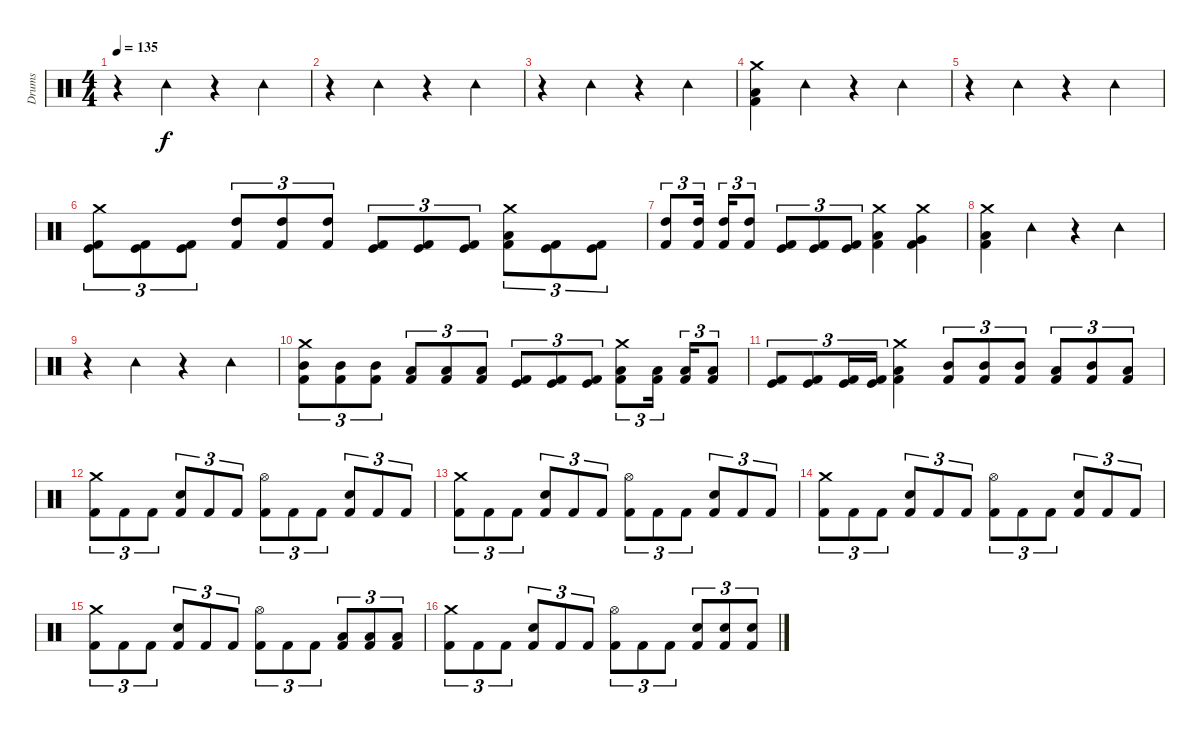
\track ("Drums" "Drums") {instrument percussion}
\staff {score}
\articulation defaults
\ts (4 4)
\tempo 135
\clef neutral
\ks c
r.4{dy f} "Tambourine (hit)".4 r.4 "Tambourine (hit)".4 |
r.4 "Tambourine (hit)".4 r.4 "Tambourine (hit)".4 |
r.4 "Tambourine (hit)".4 r.4 "Tambourine (hit)".4 |
("Crash medium (hit)" "Low Floor Tom (hit)" "Kick (hit) 2").4 "Tambourine (hit)".4 r.4 "Tambourine (hit)".4 |
r.4 "Tambourine (hit)".4 r.4 "Tambourine (hit)".4 |
("Crash medium (hit)" "Kick (hit)" "Kick (hit) 2").8{tu (3 2)} ("Kick (hit)" "Kick (hit) 2").8{tu (3 2)} ("Kick (hit)" "Kick (hit) 2").8{tu (3 2)} ("High Tom (hit)" "Kick (hit) 2").8{tu (3 2)} ("High Tom (hit)" "Kick (hit) 2").8{tu (3 2)} ("High Tom (hit)" "Kick (hit) 2").8{tu (3 2)} ("Kick (hit)" "Kick (hit) 2").8{tu (3 2)} ("Kick (hit)" "Kick (hit) 2").8{tu (3 2)} ("Kick (hit)" "Kick (hit) 2").8{tu (3 2)} ("Crash medium (hit)" "Low Floor Tom (hit)" "Kick (hit) 2").8{tu (3 2)} ("Kick (hit)" "Kick (hit) 2").8{tu (3 2)} ("Kick (hit)" "Kick (hit) 2").8{tu (3 2)} |
("High Tom (hit)" "Kick (hit) 2").8{tu (3 2)} ("High Tom (hit)" "Kick (hit) 2").16{tu (3 2)} ("High Tom (hit)" "Kick (hit) 2").16{tu (3 2)} ("High Tom (hit)" "Kick (hit) 2").8{tu (3 2)} ("Kick (hit)" "Kick (hit) 2").8{tu (3 2)} ("Kick (hit)" "Kick (hit) 2").8{tu (3 2)} ("Kick (hit)" "Kick (hit) 2").8{tu (3 2)} ("Crash medium (hit)" "Low Floor Tom (hit)" "Kick (hit) 2").4 ("Crash medium (hit)" "Very Low Tom (hit)" "Kick (hit) 2").4 |
("Crash medium (hit)" "Low Floor Tom (hit)" "Kick (hit) 2").4 "Tambourine (hit)".4 r.4 "Tambourine (hit)".4 |
r.4 "Tambourine (hit)".4 r.4 "Tambourine (hit)".4 |
("Crash medium (hit)" "Mid Tom (hit)" "Kick (hit) 2").8{tu (3 2)} ("Mid Tom (hit)" "Kick (hit) 2").8{tu (3 2)} ("Mid Tom (hit)" "Kick (hit) 2").8{tu (3 2)} ("Low Tom (hit)" "Kick (hit) 2").8{tu (3 2)} ("Low Tom (hit)" "Kick (hit) 2").8{tu (3 2)} ("Low Tom (hit)" "Kick (hit) 2").8{tu (3 2)} ("Kick (hit)" "Kick (hit) 2").8{tu (3 2)} ("Kick (hit)" "Kick (hit) 2").8{tu (3 2)} ("Kick (hit)" "Kick (hit) 2").8{tu (3 2)} ("Crash medium (hit)" "Low Floor Tom (hit)" "Kick (hit) 2").8{tu (3 2)} ("Low Floor Tom (hit)" "Kick (hit) 2").16{tu (3 2)} ("Low Floor Tom (hit)" "Kick (hit) 2").16{tu (3 2)} ("Low Floor Tom (hit)" "Kick (hit) 2").8{tu (3 2)} |
("Kick (hit)" "Kick (hit) 2").8{tu (3 2)} ("Kick (hit)" "Kick (hit) 2").8{tu (3 2)} ("Kick (hit)" "Kick (hit) 2").16{tu (3 2)} ("Kick (hit)" "Kick (hit) 2").16{tu (3 2)} ("Crash medium (hit)" "Low Floor Tom (hit)" "Kick (hit) 2").4 ("Mid Tom (hit)" "Kick (hit) 2").8{tu (3 2)} ("Mid Tom (hit)" "Kick (hit) 2").8{tu (3 2)} ("Mid Tom (hit)" "Kick (hit) 2").8{tu (3 2)} ("Low Tom (hit)" "Kick (hit) 2").8{tu (3 2)} ("Mid Tom (hit)" "Kick (hit) 2").8{tu (3 2)} ("Low Tom (hit)" "Kick (hit) 2").8{tu (3 2)} |
("Crash medium (hit)" "Kick (hit) 2").8{tu (3 2)} "Kick (hit) 2".8{tu (3 2)} "Kick (hit) 2".8{tu (3 2)} ("Snare (hit) 2" "Kick (hit) 2").8{tu (3 2)} "Kick (hit) 2".8{tu (3 2)} "Kick (hit) 2".8{tu (3 2)} ("Hi-Hat (open)" "Kick (hit) 2").8{tu (3 2)} "Kick (hit) 2".8{tu (3 2)} "Kick (hit) 2".8{tu (3 2)} ("Snare (hit) 2" "Kick (hit) 2").8{tu (3 2)} "Kick (hit) 2".8{tu (3 2)} "Kick (hit) 2".8{tu (3 2)} |
("Crash medium (hit)" "Kick (hit) 2").8{tu (3 2)} "Kick (hit) 2".8{tu (3 2)} "Kick (hit) 2".8{tu (3 2)} ("Snare (hit) 2" "Kick (hit) 2").8{tu (3 2)} "Kick (hit) 2".8{tu (3 2)} "Kick (hit) 2".8{tu (3 2)} ("Hi-Hat (open)" "Kick (hit) 2").8{tu (3 2)} "Kick (hit) 2".8{tu (3 2)} "Kick (hit) 2".8{tu (3 2)} ("Snare (hit) 2" "Kick (hit) 2").8{tu (3 2)} "Kick (hit) 2".8{tu (3 2)} "Kick (hit) 2".8{tu (3 2)} |
("Crash medium (hit)" "Kick (hit) 2").8{tu (3 2)} "Kick (hit) 2".8{tu (3 2)} "Kick (hit) 2".8{tu (3 2)} ("Snare (hit) 2" "Kick (hit) 2").8{tu (3 2)} "Kick (hit) 2".8{tu (3 2)} "Kick (hit) 2".8{tu (3 2)} ("Hi-Hat (open)" "Kick (hit) 2").8{tu (3 2)} "Kick (hit) 2".8{tu (3 2)} "Kick (hit) 2".8{tu (3 2)} ("Snare (hit) 2" "Kick (hit) 2").8{tu (3 2)} "Kick (hit) 2".8{tu (3 2)} "Kick (hit) 2".8{tu (3 2)} |
("Crash medium (hit)" "Kick (hit) 2").8{tu (3 2)} "Kick (hit) 2".8{tu (3 2)} "Kick (hit) 2".8{tu (3 2)} ("Snare (hit) 2" "Kick (hit) 2").8{tu (3 2)} "Kick (hit) 2".8{tu (3 2)} "Kick (hit) 2".8{tu (3 2)} ("Hi-Hat (open)" "Kick (hit) 2").8{tu (3 2)} "Kick (hit) 2".8{tu (3 2)} "Kick (hit) 2".8{tu (3 2)} ("Low Floor Tom (hit)" "Kick (hit) 2").8{tu (3 2)} ("Low Floor Tom (hit)" "Kick (hit) 2").8{tu (3 2)} ("Low Floor Tom (hit)" "Kick (hit) 2").8{tu (3 2)} |
("Crash medium (hit)" "Kick (hit) 2").8{tu (3 2)} "Kick (hit) 2".8{tu (3 2)} "Kick (hit) 2".8{tu (3 2)} ("Snare (hit) 2" "Kick (hit) 2").8{tu (3 2)} "Kick (hit) 2".8{tu (3 2)} "Kick (hit) 2".8{tu (3 2)} ("Hi-Hat (open)" "Kick (hit) 2").8{tu (3 2)} "Kick (hit) 2".8{tu (3 2)} "Kick (hit) 2".8{tu (3 2)} ("Snare (hit) 2" "Kick (hit) 2").8{tu (3 2)} ("Snare (hit) 2" "Kick (hit) 2").8{tu (3 2)} ("Snare (hit) 2" "Kick (hit) 2").8{tu (3 2)}
